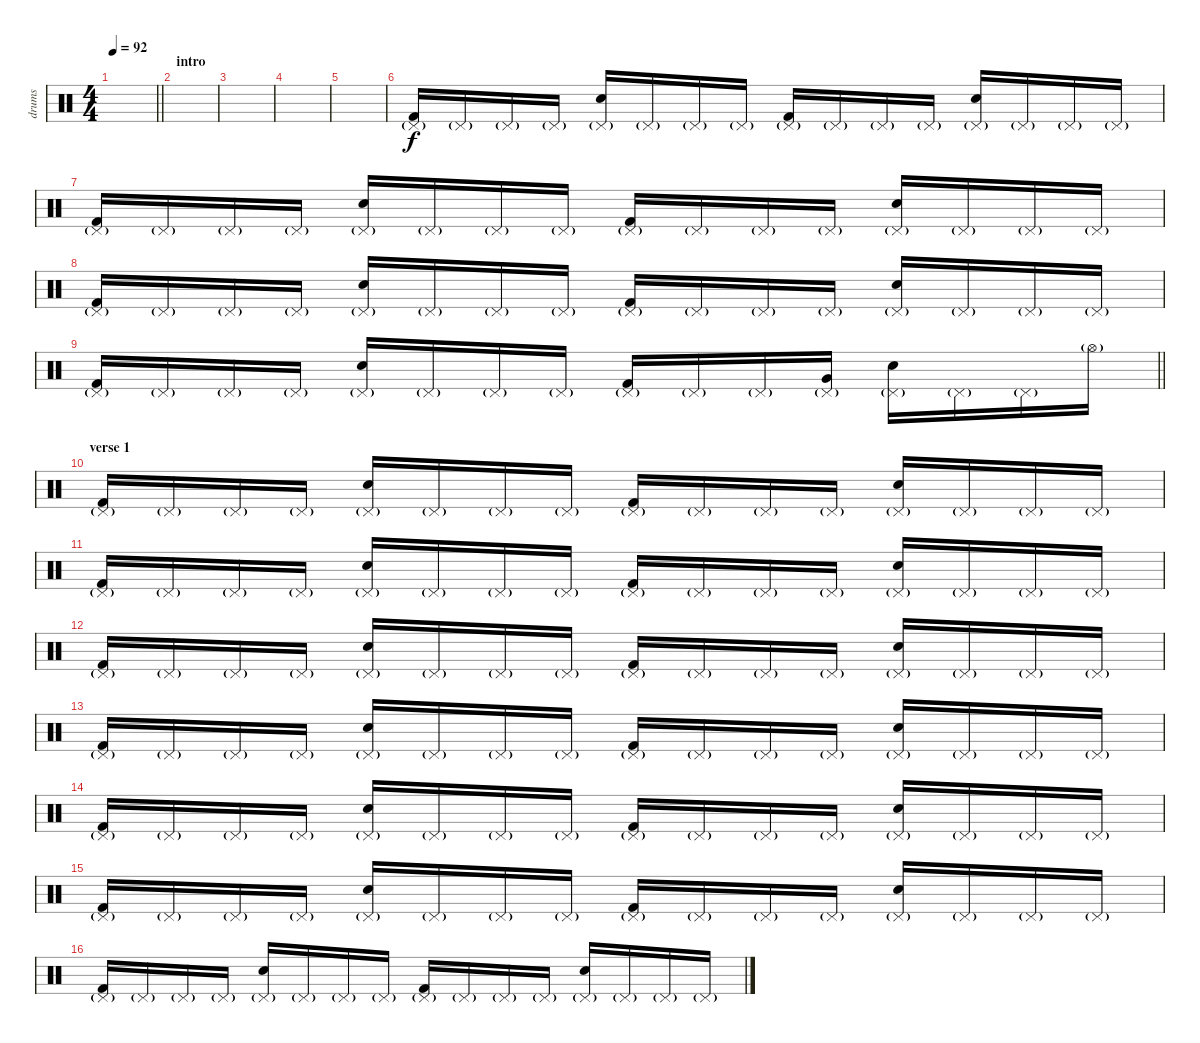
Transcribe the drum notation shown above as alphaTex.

\track ("drums" "drums") {instrument percussion}
\staff {score}
\articulation defaults
\ts (4 4)
\tempo 92
\clef neutral
\barLineRight lightlight
\ks c
|
\section ("" "intro")
|
|
|
|
("Kick (hit) 2" "Pedal Hi-Hat (hit)"{g}).16 "Pedal Hi-Hat (hit)"{g}.16 "Pedal Hi-Hat (hit)"{g}.16 "Pedal Hi-Hat (hit)"{g}.16 ("Electric Snare (hit)" "Pedal Hi-Hat (hit)"{g}).16 "Pedal Hi-Hat (hit)"{g}.16 "Pedal Hi-Hat (hit)"{g}.16 "Pedal Hi-Hat (hit)"{g}.16 ("Kick (hit) 2" "Pedal Hi-Hat (hit)"{g}).16 "Pedal Hi-Hat (hit)"{g}.16 "Pedal Hi-Hat (hit)"{g}.16 "Pedal Hi-Hat (hit)"{g}.16 ("Electric Snare (hit)" "Pedal Hi-Hat (hit)"{g}).16 "Pedal Hi-Hat (hit)"{g}.16 "Pedal Hi-Hat (hit)"{g}.16 "Pedal Hi-Hat (hit)"{g}.16 |
("Kick (hit) 2" "Pedal Hi-Hat (hit)"{g}).16 "Pedal Hi-Hat (hit)"{g}.16 "Pedal Hi-Hat (hit)"{g}.16 "Pedal Hi-Hat (hit)"{g}.16 ("Electric Snare (hit)" "Pedal Hi-Hat (hit)"{g}).16 "Pedal Hi-Hat (hit)"{g}.16 "Pedal Hi-Hat (hit)"{g}.16 "Pedal Hi-Hat (hit)"{g}.16 ("Kick (hit) 2" "Pedal Hi-Hat (hit)"{g}).16 "Pedal Hi-Hat (hit)"{g}.16 "Pedal Hi-Hat (hit)"{g}.16 "Pedal Hi-Hat (hit)"{g}.16 ("Electric Snare (hit)" "Pedal Hi-Hat (hit)"{g}).16 "Pedal Hi-Hat (hit)"{g}.16 "Pedal Hi-Hat (hit)"{g}.16 "Pedal Hi-Hat (hit)"{g}.16 |
("Kick (hit) 2" "Pedal Hi-Hat (hit)"{g}).16 "Pedal Hi-Hat (hit)"{g}.16 "Pedal Hi-Hat (hit)"{g}.16 "Pedal Hi-Hat (hit)"{g}.16 ("Electric Snare (hit)" "Pedal Hi-Hat (hit)"{g}).16 "Pedal Hi-Hat (hit)"{g}.16 "Pedal Hi-Hat (hit)"{g}.16 "Pedal Hi-Hat (hit)"{g}.16 ("Kick (hit) 2" "Pedal Hi-Hat (hit)"{g}).16 "Pedal Hi-Hat (hit)"{g}.16 "Pedal Hi-Hat (hit)"{g}.16 "Pedal Hi-Hat (hit)"{g}.16 ("Electric Snare (hit)" "Pedal Hi-Hat (hit)"{g}).16 "Pedal Hi-Hat (hit)"{g}.16 "Pedal Hi-Hat (hit)"{g}.16 "Pedal Hi-Hat (hit)"{g}.16 |
\barLineRight lightlight
("Kick (hit) 2" "Pedal Hi-Hat (hit)"{g}).16 "Pedal Hi-Hat (hit)"{g}.16 "Pedal Hi-Hat (hit)"{g}.16 "Pedal Hi-Hat (hit)"{g}.16 ("Electric Snare (hit)" "Pedal Hi-Hat (hit)"{g}).16 "Pedal Hi-Hat (hit)"{g}.16 "Pedal Hi-Hat (hit)"{g}.16 "Pedal Hi-Hat (hit)"{g}.16 ("Kick (hit) 2" "Pedal Hi-Hat (hit)"{g}).16 "Pedal Hi-Hat (hit)"{g}.16 "Pedal Hi-Hat (hit)"{g}.16 ("Very Low Tom (hit)" "Pedal Hi-Hat (hit)"{g}).16 ("Electric Snare (hit)" "Pedal Hi-Hat (hit)"{g}).16 "Pedal Hi-Hat (hit)"{g}.16 "Pedal Hi-Hat (hit)"{g}.16 "Hi-Hat (open)"{g}.16 |
\section ("" "verse 1 ")
("Kick (hit) 2" "Pedal Hi-Hat (hit)"{g}).16 "Pedal Hi-Hat (hit)"{g}.16 "Pedal Hi-Hat (hit)"{g}.16 "Pedal Hi-Hat (hit)"{g}.16 ("Electric Snare (hit)" "Pedal Hi-Hat (hit)"{g}).16 "Pedal Hi-Hat (hit)"{g}.16 "Pedal Hi-Hat (hit)"{g}.16 "Pedal Hi-Hat (hit)"{g}.16 ("Kick (hit) 2" "Pedal Hi-Hat (hit)"{g}).16 "Pedal Hi-Hat (hit)"{g}.16 "Pedal Hi-Hat (hit)"{g}.16 "Pedal Hi-Hat (hit)"{g}.16 ("Electric Snare (hit)" "Pedal Hi-Hat (hit)"{g}).16 "Pedal Hi-Hat (hit)"{g}.16 "Pedal Hi-Hat (hit)"{g}.16 "Pedal Hi-Hat (hit)"{g}.16 |
("Kick (hit) 2" "Pedal Hi-Hat (hit)"{g}).16 "Pedal Hi-Hat (hit)"{g}.16 "Pedal Hi-Hat (hit)"{g}.16 "Pedal Hi-Hat (hit)"{g}.16 ("Electric Snare (hit)" "Pedal Hi-Hat (hit)"{g}).16 "Pedal Hi-Hat (hit)"{g}.16 "Pedal Hi-Hat (hit)"{g}.16 "Pedal Hi-Hat (hit)"{g}.16 ("Kick (hit) 2" "Pedal Hi-Hat (hit)"{g}).16 "Pedal Hi-Hat (hit)"{g}.16 "Pedal Hi-Hat (hit)"{g}.16 "Pedal Hi-Hat (hit)"{g}.16 ("Electric Snare (hit)" "Pedal Hi-Hat (hit)"{g}).16 "Pedal Hi-Hat (hit)"{g}.16 "Pedal Hi-Hat (hit)"{g}.16 "Pedal Hi-Hat (hit)"{g}.16 |
("Kick (hit) 2" "Pedal Hi-Hat (hit)"{g}).16 "Pedal Hi-Hat (hit)"{g}.16 "Pedal Hi-Hat (hit)"{g}.16 "Pedal Hi-Hat (hit)"{g}.16 ("Electric Snare (hit)" "Pedal Hi-Hat (hit)"{g}).16 "Pedal Hi-Hat (hit)"{g}.16 "Pedal Hi-Hat (hit)"{g}.16 "Pedal Hi-Hat (hit)"{g}.16 ("Kick (hit) 2" "Pedal Hi-Hat (hit)"{g}).16 "Pedal Hi-Hat (hit)"{g}.16 "Pedal Hi-Hat (hit)"{g}.16 "Pedal Hi-Hat (hit)"{g}.16 ("Electric Snare (hit)" "Pedal Hi-Hat (hit)"{g}).16 "Pedal Hi-Hat (hit)"{g}.16 "Pedal Hi-Hat (hit)"{g}.16 "Pedal Hi-Hat (hit)"{g}.16 |
("Kick (hit) 2" "Pedal Hi-Hat (hit)"{g}).16 "Pedal Hi-Hat (hit)"{g}.16 "Pedal Hi-Hat (hit)"{g}.16 "Pedal Hi-Hat (hit)"{g}.16 ("Electric Snare (hit)" "Pedal Hi-Hat (hit)"{g}).16 "Pedal Hi-Hat (hit)"{g}.16 "Pedal Hi-Hat (hit)"{g}.16 "Pedal Hi-Hat (hit)"{g}.16 ("Kick (hit) 2" "Pedal Hi-Hat (hit)"{g}).16 "Pedal Hi-Hat (hit)"{g}.16 "Pedal Hi-Hat (hit)"{g}.16 "Pedal Hi-Hat (hit)"{g}.16 ("Electric Snare (hit)" "Pedal Hi-Hat (hit)"{g}).16 "Pedal Hi-Hat (hit)"{g}.16 "Pedal Hi-Hat (hit)"{g}.16 "Pedal Hi-Hat (hit)"{g}.16 |
("Kick (hit) 2" "Pedal Hi-Hat (hit)"{g}).16 "Pedal Hi-Hat (hit)"{g}.16 "Pedal Hi-Hat (hit)"{g}.16 "Pedal Hi-Hat (hit)"{g}.16 ("Electric Snare (hit)" "Pedal Hi-Hat (hit)"{g}).16 "Pedal Hi-Hat (hit)"{g}.16 "Pedal Hi-Hat (hit)"{g}.16 "Pedal Hi-Hat (hit)"{g}.16 ("Kick (hit) 2" "Pedal Hi-Hat (hit)"{g}).16 "Pedal Hi-Hat (hit)"{g}.16 "Pedal Hi-Hat (hit)"{g}.16 "Pedal Hi-Hat (hit)"{g}.16 ("Electric Snare (hit)" "Pedal Hi-Hat (hit)"{g}).16 "Pedal Hi-Hat (hit)"{g}.16 "Pedal Hi-Hat (hit)"{g}.16 "Pedal Hi-Hat (hit)"{g}.16 |
("Kick (hit) 2" "Pedal Hi-Hat (hit)"{g}).16 "Pedal Hi-Hat (hit)"{g}.16 "Pedal Hi-Hat (hit)"{g}.16 "Pedal Hi-Hat (hit)"{g}.16 ("Electric Snare (hit)" "Pedal Hi-Hat (hit)"{g}).16 "Pedal Hi-Hat (hit)"{g}.16 "Pedal Hi-Hat (hit)"{g}.16 "Pedal Hi-Hat (hit)"{g}.16 ("Kick (hit) 2" "Pedal Hi-Hat (hit)"{g}).16 "Pedal Hi-Hat (hit)"{g}.16 "Pedal Hi-Hat (hit)"{g}.16 "Pedal Hi-Hat (hit)"{g}.16 ("Electric Snare (hit)" "Pedal Hi-Hat (hit)"{g}).16 "Pedal Hi-Hat (hit)"{g}.16 "Pedal Hi-Hat (hit)"{g}.16 "Pedal Hi-Hat (hit)"{g}.16 |
("Kick (hit) 2" "Pedal Hi-Hat (hit)"{g}).16 "Pedal Hi-Hat (hit)"{g}.16 "Pedal Hi-Hat (hit)"{g}.16 "Pedal Hi-Hat (hit)"{g}.16 ("Electric Snare (hit)" "Pedal Hi-Hat (hit)"{g}).16 "Pedal Hi-Hat (hit)"{g}.16 "Pedal Hi-Hat (hit)"{g}.16 "Pedal Hi-Hat (hit)"{g}.16 ("Kick (hit) 2" "Pedal Hi-Hat (hit)"{g}).16 "Pedal Hi-Hat (hit)"{g}.16 "Pedal Hi-Hat (hit)"{g}.16 "Pedal Hi-Hat (hit)"{g}.16 ("Electric Snare (hit)" "Pedal Hi-Hat (hit)"{g}).16 "Pedal Hi-Hat (hit)"{g}.16 "Pedal Hi-Hat (hit)"{g}.16 "Pedal Hi-Hat (hit)"{g}.16
